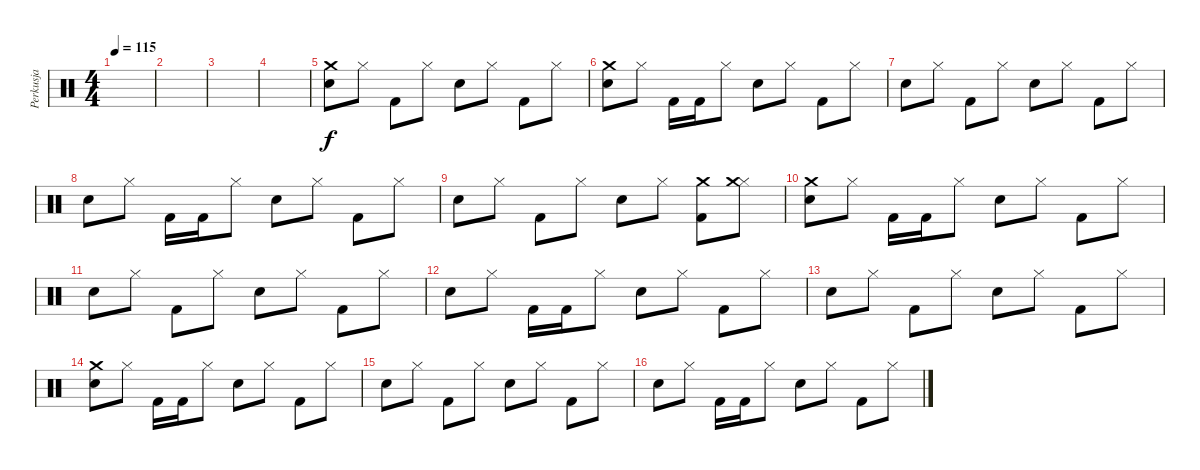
\track ("Perkusja" "Perkusja") {instrument percussion}
\staff {score}
\articulation defaults
\ts (4 4)
\tempo 115
\clef neutral
\ks c
|
|
|
|
("Snare (hit) 2" "Crash medium (hit)").8 "Hi-Hat (closed)".8 "Kick (hit) 2".8 "Hi-Hat (closed)".8 "Snare (hit) 2".8 "Hi-Hat (closed)".8 "Kick (hit) 2".8 "Hi-Hat (closed)".8 |
("Snare (hit) 2" "Crash medium (hit)").8 "Hi-Hat (closed)".8 "Kick (hit) 2".16 "Kick (hit) 2".16 "Hi-Hat (closed)".8 "Snare (hit) 2".8 "Hi-Hat (closed)".8 "Kick (hit) 2".8 "Hi-Hat (closed)".8 |
"Snare (hit) 2".8 "Hi-Hat (closed)".8 "Kick (hit) 2".8 "Hi-Hat (closed)".8 "Snare (hit) 2".8 "Hi-Hat (closed)".8 "Kick (hit) 2".8 "Hi-Hat (closed)".8 |
"Snare (hit) 2".8 "Hi-Hat (closed)".8 "Kick (hit) 2".16 "Kick (hit) 2".16 "Hi-Hat (closed)".8 "Snare (hit) 2".8 "Hi-Hat (closed)".8 "Kick (hit) 2".8 "Hi-Hat (closed)".8 |
"Snare (hit) 2".8 "Hi-Hat (closed)".8 "Kick (hit) 2".8 "Hi-Hat (closed)".8 "Snare (hit) 2".8 "Hi-Hat (closed)".8 ("Kick (hit) 2" "Crash medium (hit)").8 ("Hi-Hat (closed)" "Crash medium (hit)").8 |
("Snare (hit) 2" "Crash medium (hit)").8 "Hi-Hat (closed)".8 "Kick (hit) 2".16 "Kick (hit) 2".16 "Hi-Hat (closed)".8 "Snare (hit) 2".8 "Hi-Hat (closed)".8 "Kick (hit) 2".8 "Hi-Hat (closed)".8 |
"Snare (hit) 2".8 "Hi-Hat (closed)".8 "Kick (hit) 2".8 "Hi-Hat (closed)".8 "Snare (hit) 2".8 "Hi-Hat (closed)".8 "Kick (hit) 2".8 "Hi-Hat (closed)".8 |
"Snare (hit) 2".8 "Hi-Hat (closed)".8 "Kick (hit) 2".16 "Kick (hit) 2".16 "Hi-Hat (closed)".8 "Snare (hit) 2".8 "Hi-Hat (closed)".8 "Kick (hit) 2".8 "Hi-Hat (closed)".8 |
"Snare (hit) 2".8 "Hi-Hat (closed)".8 "Kick (hit) 2".8 "Hi-Hat (closed)".8 "Snare (hit) 2".8 "Hi-Hat (closed)".8 "Kick (hit) 2".8 "Hi-Hat (closed)".8 |
("Snare (hit) 2" "Crash medium (hit)").8 "Hi-Hat (closed)".8 "Kick (hit) 2".16 "Kick (hit) 2".16 "Hi-Hat (closed)".8 "Snare (hit) 2".8 "Hi-Hat (closed)".8 "Kick (hit) 2".8 "Hi-Hat (closed)".8 |
"Snare (hit) 2".8 "Hi-Hat (closed)".8 "Kick (hit) 2".8 "Hi-Hat (closed)".8 "Snare (hit) 2".8 "Hi-Hat (closed)".8 "Kick (hit) 2".8 "Hi-Hat (closed)".8 |
"Snare (hit) 2".8 "Hi-Hat (closed)".8 "Kick (hit) 2".16 "Kick (hit) 2".16 "Hi-Hat (closed)".8 "Snare (hit) 2".8 "Hi-Hat (closed)".8 "Kick (hit) 2".8 "Hi-Hat (closed)".8
